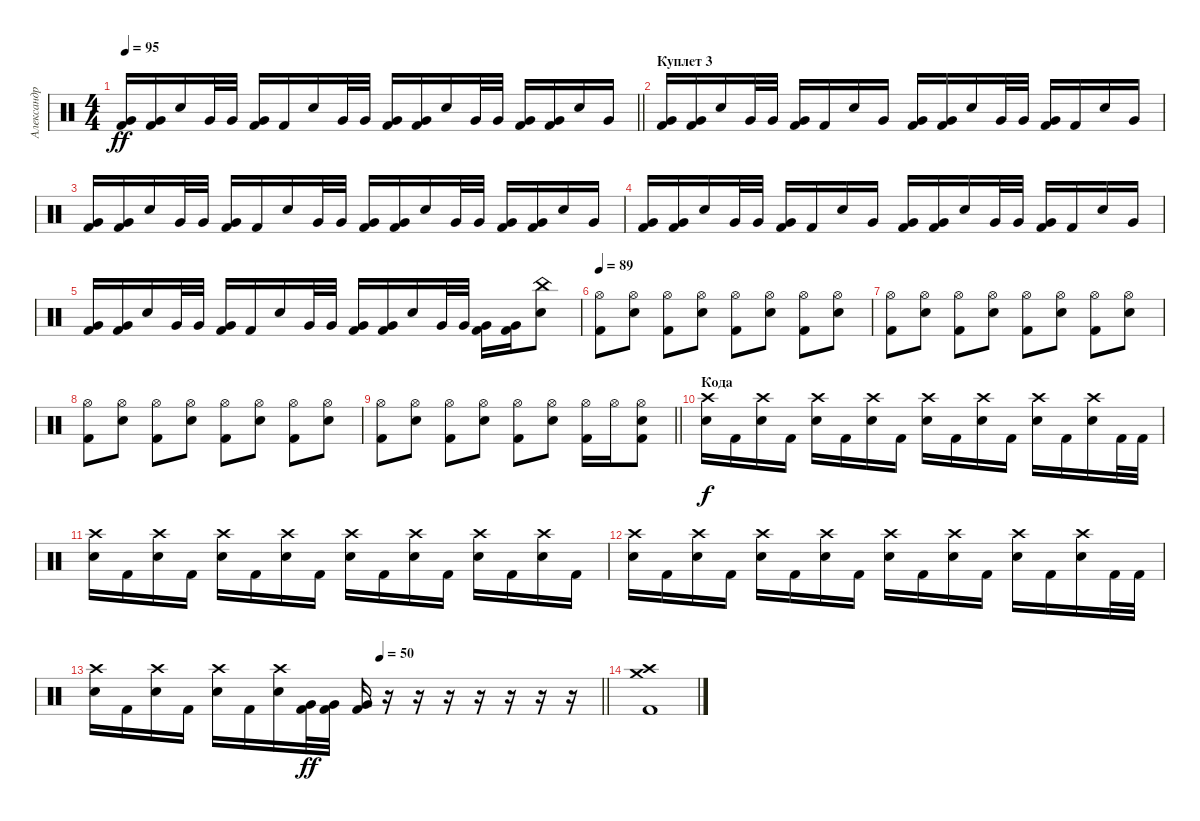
\track ("Александр \"Поручик\" Щиголев" "Александр ") {instrument percussion}
\staff {score}
\articulation defaults
\ts (4 4)
\tempo 95
\clef neutral
\barLineRight lightlight
\ks c
("Very Low Tom (hit)" "Kick (hit) 2").16{dy ff} ("Very Low Tom (hit)" "Kick (hit) 2").16 "Electric Snare (hit)".16 "Very Low Tom (hit)".32 "Very Low Tom (hit)".32 ("Very Low Tom (hit)" "Kick (hit) 2").16 "Kick (hit) 2".16 "Electric Snare (hit)".16 "Very Low Tom (hit)".32 "Very Low Tom (hit)".32 ("Very Low Tom (hit)" "Kick (hit) 2").16 ("Very Low Tom (hit)" "Kick (hit) 2").16 "Electric Snare (hit)".16 "Very Low Tom (hit)".32 "Very Low Tom (hit)".32 ("Very Low Tom (hit)" "Kick (hit) 2").16 ("Very Low Tom (hit)" "Kick (hit) 2").16 "Electric Snare (hit)".16 "Very Low Tom (hit)".16 |
\section ("" "Куплет 3")
("Very Low Tom (hit)" "Kick (hit) 2").16 ("Very Low Tom (hit)" "Kick (hit) 2").16 "Electric Snare (hit)".16 "Very Low Tom (hit)".32 "Very Low Tom (hit)".32 ("Very Low Tom (hit)" "Kick (hit) 2").16 "Kick (hit) 2".16 "Electric Snare (hit)".16 "Very Low Tom (hit)".16 ("Very Low Tom (hit)" "Kick (hit) 2").16 ("Very Low Tom (hit)" "Kick (hit) 2").16 "Electric Snare (hit)".16 "Very Low Tom (hit)".32 "Very Low Tom (hit)".32 ("Very Low Tom (hit)" "Kick (hit) 2").16 "Kick (hit) 2".16 "Electric Snare (hit)".16 "Very Low Tom (hit)".16 |
("Very Low Tom (hit)" "Kick (hit) 2").16 ("Very Low Tom (hit)" "Kick (hit) 2").16 "Electric Snare (hit)".16 "Very Low Tom (hit)".32 "Very Low Tom (hit)".32 ("Very Low Tom (hit)" "Kick (hit) 2").16 "Kick (hit) 2".16 "Electric Snare (hit)".16 "Very Low Tom (hit)".32 "Very Low Tom (hit)".32 ("Very Low Tom (hit)" "Kick (hit) 2").16 ("Very Low Tom (hit)" "Kick (hit) 2").16 "Electric Snare (hit)".16 "Very Low Tom (hit)".32 "Very Low Tom (hit)".32 ("Very Low Tom (hit)" "Kick (hit) 2").16 ("Very Low Tom (hit)" "Kick (hit) 2").16 "Electric Snare (hit)".16 "Very Low Tom (hit)".16 |
("Very Low Tom (hit)" "Kick (hit) 2").16 ("Very Low Tom (hit)" "Kick (hit) 2").16 "Electric Snare (hit)".16 "Very Low Tom (hit)".32 "Very Low Tom (hit)".32 ("Very Low Tom (hit)" "Kick (hit) 2").16 "Kick (hit) 2".16 "Electric Snare (hit)".16 "Very Low Tom (hit)".16 ("Very Low Tom (hit)" "Kick (hit) 2").16 ("Very Low Tom (hit)" "Kick (hit) 2").16 "Electric Snare (hit)".16 "Very Low Tom (hit)".32 "Very Low Tom (hit)".32 ("Very Low Tom (hit)" "Kick (hit) 2").16 "Kick (hit) 2".16 "Electric Snare (hit)".16 "Very Low Tom (hit)".16 |
("Very Low Tom (hit)" "Kick (hit) 2").16 ("Very Low Tom (hit)" "Kick (hit) 2").16 "Electric Snare (hit)".16 "Very Low Tom (hit)".32 "Very Low Tom (hit)".32 ("Very Low Tom (hit)" "Kick (hit) 2").16 "Kick (hit) 2".16 "Electric Snare (hit)".16 "Very Low Tom (hit)".32 "Very Low Tom (hit)".32 ("Very Low Tom (hit)" "Kick (hit) 2").16 ("Very Low Tom (hit)" "Kick (hit) 2").16 "Electric Snare (hit)".16 "Very Low Tom (hit)".32 "Very Low Tom (hit)".32 ("Very Low Tom (hit)" "Kick (hit) 2").16 ("Very Low Tom (hit)" "Kick (hit) 2").16 ("China (hit)" "Electric Snare (hit)").8 |
\tempo 89
("Hi-Hat (open)" "Kick (hit) 2").8 ("Hi-Hat (open)" "Electric Snare (hit)").8 ("Hi-Hat (open)" "Kick (hit) 2").8 ("Hi-Hat (open)" "Electric Snare (hit)").8 ("Hi-Hat (open)" "Kick (hit) 2").8 ("Hi-Hat (open)" "Electric Snare (hit)").8 ("Hi-Hat (open)" "Kick (hit) 2").8 ("Hi-Hat (open)" "Electric Snare (hit)").8 |
("Hi-Hat (open)" "Kick (hit) 2").8 ("Hi-Hat (open)" "Electric Snare (hit)").8 ("Hi-Hat (open)" "Kick (hit) 2").8 ("Hi-Hat (open)" "Electric Snare (hit)").8 ("Hi-Hat (open)" "Kick (hit) 2").8 ("Hi-Hat (open)" "Electric Snare (hit)").8 ("Hi-Hat (open)" "Kick (hit) 2").8 ("Hi-Hat (open)" "Electric Snare (hit)").8 |
("Hi-Hat (open)" "Kick (hit) 2").8 ("Hi-Hat (open)" "Electric Snare (hit)").8 ("Hi-Hat (open)" "Kick (hit) 2").8 ("Hi-Hat (open)" "Electric Snare (hit)").8 ("Hi-Hat (open)" "Kick (hit) 2").8 ("Hi-Hat (open)" "Electric Snare (hit)").8 ("Hi-Hat (open)" "Kick (hit) 2").8 ("Hi-Hat (open)" "Electric Snare (hit)").8 |
\barLineRight lightlight
("Hi-Hat (open)" "Kick (hit) 2").8 ("Hi-Hat (open)" "Electric Snare (hit)").8 ("Hi-Hat (open)" "Kick (hit) 2").8 ("Hi-Hat (open)" "Electric Snare (hit)").8 ("Hi-Hat (open)" "Kick (hit) 2").8 ("Hi-Hat (open)" "Electric Snare (hit)").8 ("Hi-Hat (open)" "Kick (hit) 2").16 "Hi-Hat (open)".16 ("Hi-Hat (open)" "Electric Snare (hit)" "Kick (hit) 2").8 |
\section ("" "Кода")
("Crash high (hit)" "Electric Snare (hit)").16{dy f volume 13} "Kick (hit) 2".16 ("Crash high (hit)" "Electric Snare (hit)").16 "Kick (hit) 2".16 ("Crash high (hit)" "Electric Snare (hit)").16 "Kick (hit) 2".16 ("Crash high (hit)" "Electric Snare (hit)").16 "Kick (hit) 2".16 ("Crash high (hit)" "Electric Snare (hit)").16 "Kick (hit) 2".16 ("Crash high (hit)" "Electric Snare (hit)").16 "Kick (hit) 2".16 ("Crash high (hit)" "Electric Snare (hit)").16 "Kick (hit) 2".16 ("Crash high (hit)" "Electric Snare (hit)").16 "Kick (hit) 2".32 "Kick (hit) 2".32 |
("Crash high (hit)" "Electric Snare (hit)").16 "Kick (hit) 2".16 ("Crash high (hit)" "Electric Snare (hit)").16 "Kick (hit) 2".16 ("Crash high (hit)" "Electric Snare (hit)").16 "Kick (hit) 2".16 ("Crash high (hit)" "Electric Snare (hit)").16 "Kick (hit) 2".16 ("Crash high (hit)" "Electric Snare (hit)").16 "Kick (hit) 2".16 ("Crash high (hit)" "Electric Snare (hit)").16 "Kick (hit) 2".16 ("Crash high (hit)" "Electric Snare (hit)").16 "Kick (hit) 2".16 ("Crash high (hit)" "Electric Snare (hit)").16 "Kick (hit) 2".16 |
("Crash high (hit)" "Electric Snare (hit)").16 "Kick (hit) 2".16 ("Crash high (hit)" "Electric Snare (hit)").16 "Kick (hit) 2".16 ("Crash high (hit)" "Electric Snare (hit)").16 "Kick (hit) 2".16 ("Crash high (hit)" "Electric Snare (hit)").16 "Kick (hit) 2".16 ("Crash high (hit)" "Electric Snare (hit)").16 "Kick (hit) 2".16 ("Crash high (hit)" "Electric Snare (hit)").16 "Kick (hit) 2".16 ("Crash high (hit)" "Electric Snare (hit)").16 "Kick (hit) 2".16 ("Crash high (hit)" "Electric Snare (hit)").16 "Kick (hit) 2".32 "Kick (hit) 2".32 |
\tempo (50 0.5625)
\barLineRight lightlight
("Crash high (hit)" "Electric Snare (hit)").16 "Kick (hit) 2".16 ("Crash high (hit)" "Electric Snare (hit)").16 "Kick (hit) 2".16 ("Crash high (hit)" "Electric Snare (hit)").16 "Kick (hit) 2".16 ("Crash high (hit)" "Electric Snare (hit)").16 ("Very Low Tom (hit)" "Kick (hit) 2").32{dy ff} ("Very Low Tom (hit)" "Kick (hit) 2").32 ("Very Low Tom (hit)" "Kick (hit) 2").16 r.16 r.16 r.16 r.16 r.16 r.16 r.16 |
("Crash high (hit)" "Crash medium (hit)" "Kick (hit) 2").1
